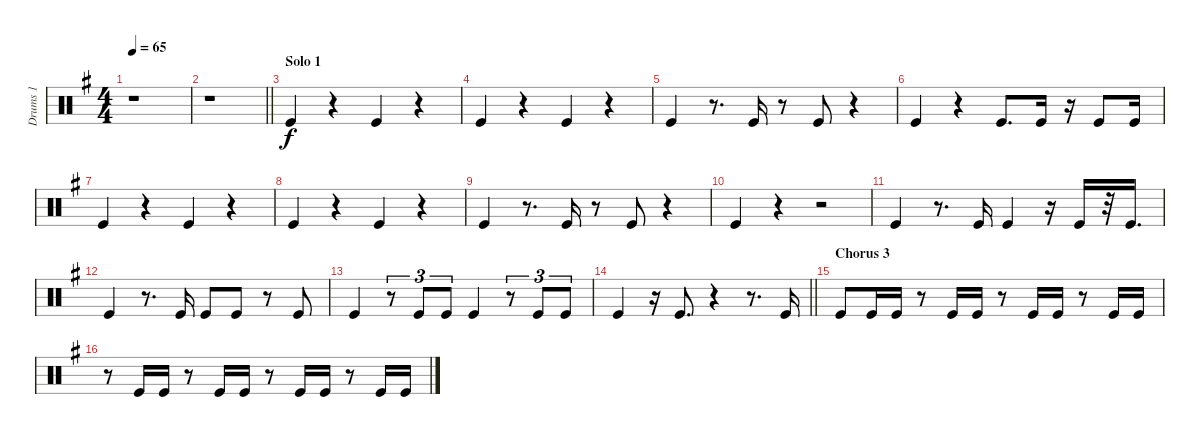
\track ("Drums 1" "Drums 1") {instrument percussion}
\staff {score}
\articulation defaults
\ts (4 4)
\tempo 65
\clef neutral
\ks g
r.1{dy f} |
\barLineRight lightlight
r.1 |
\section ("" "Solo 1")
"Kick (hit)".4 r.4 "Kick (hit)".4 r.4 |
"Kick (hit)".4 r.4 "Kick (hit)".4 r.4 |
"Kick (hit)".4 r.8{d} "Kick (hit)".16 r.8 "Kick (hit)".8 r.4 |
"Kick (hit)".4 r.4 "Kick (hit)".8{d} "Kick (hit)".16 r.16 "Kick (hit)".8 "Kick (hit)".16 |
"Kick (hit)".4 r.4 "Kick (hit)".4 r.4 |
"Kick (hit)".4 r.4 "Kick (hit)".4 r.4 |
"Kick (hit)".4 r.8{d} "Kick (hit)".16 r.8 "Kick (hit)".8 r.4 |
"Kick (hit)".4 r.4 r.2 |
"Kick (hit)".4 r.8{d} "Kick (hit)".16 "Kick (hit)".4 r.16 "Kick (hit)".16 r.32 "Kick (hit)".16{d} |
"Kick (hit)".4 r.8{d} "Kick (hit)".16 "Kick (hit)".8 "Kick (hit)".8 r.8 "Kick (hit)".8 |
"Kick (hit)".4 r.8{tu (3 2)} "Kick (hit)".8{tu (3 2)} "Kick (hit)".8{tu (3 2)} "Kick (hit)".4 r.8{tu (3 2)} "Kick (hit)".8{tu (3 2)} "Kick (hit)".8{tu (3 2)} |
\barLineRight lightlight "Kick (hit)".4
r.16 "Kick (hit)".8{d} r.4 r.8{d} "Kick (hit)".16 |
\section ("" "Chorus 3")
"Kick (hit)".8 "Kick (hit)".16 "Kick (hit)".16 r.8 "Kick (hit)".16 "Kick (hit)".16 r.8 "Kick (hit)".16 "Kick (hit)".16 r.8 "Kick (hit)".16 "Kick (hit)".16 |
r.8 "Kick (hit)".16 "Kick (hit)".16 r.8 "Kick (hit)".16 "Kick (hit)".16 r.8 "Kick (hit)".16 "Kick (hit)".16 r.8 "Kick (hit)".16 "Kick (hit)".16
